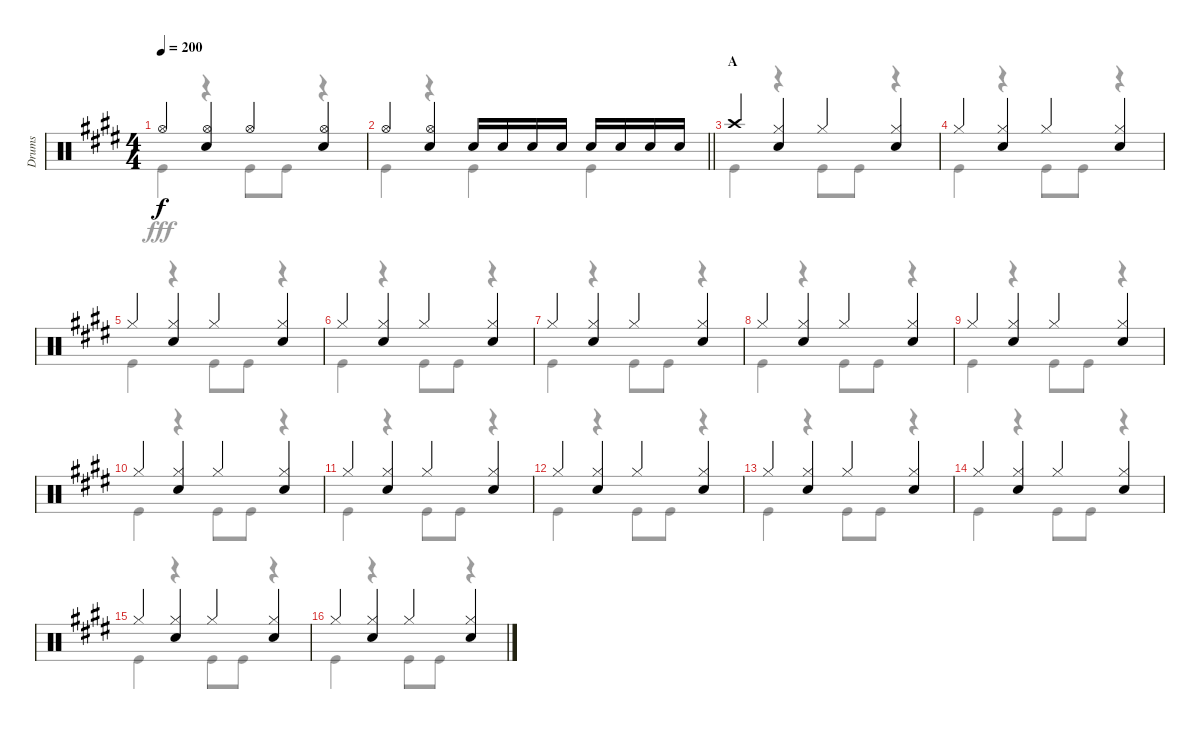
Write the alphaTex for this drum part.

\track ("Drums" "Drums") {instrument percussion}
\staff {score}
\articulation defaults
\voice
\ts (4 4)
\tempo 200
\clef neutral
\ks e "Hi-Hat (open)".4{dy f}
("Hi-Hat (open)" "Snare (hit) 2").4 "Hi-Hat (open)".4 ("Hi-Hat (open)" "Snare (hit) 2").4 |
\barLineRight lightlight "Hi-Hat (open)".4
("Hi-Hat (open)" "Snare (hit) 2").4 "Snare (hit) 2".16 "Snare (hit) 2".16 "Snare (hit) 2".16 "Snare (hit) 2".16 "Snare (hit) 2".16 "Snare (hit) 2".16 "Snare (hit) 2".16 "Snare (hit) 2".16 |
\section ("" "A")
"Crash high (hit)".4 ("Hi-Hat (closed)" "Snare (hit) 2").4 "Hi-Hat (closed)".4 ("Hi-Hat (closed)" "Snare (hit) 2").4 |
"Hi-Hat (closed)".4 ("Hi-Hat (closed)" "Snare (hit) 2").4 "Hi-Hat (closed)".4 ("Hi-Hat (closed)" "Snare (hit) 2").4 |
"Hi-Hat (closed)".4 ("Hi-Hat (closed)" "Snare (hit) 2").4 "Hi-Hat (closed)".4 ("Hi-Hat (closed)" "Snare (hit) 2").4 |
"Hi-Hat (closed)".4 ("Hi-Hat (closed)" "Snare (hit) 2").4 "Hi-Hat (closed)".4 ("Hi-Hat (closed)" "Snare (hit) 2").4 |
"Hi-Hat (closed)".4 ("Hi-Hat (closed)" "Snare (hit) 2").4 "Hi-Hat (closed)".4 ("Hi-Hat (closed)" "Snare (hit) 2").4 |
"Hi-Hat (closed)".4 ("Hi-Hat (closed)" "Snare (hit) 2").4 "Hi-Hat (closed)".4 ("Hi-Hat (closed)" "Snare (hit) 2").4 |
"Hi-Hat (closed)".4 ("Hi-Hat (closed)" "Snare (hit) 2").4 "Hi-Hat (closed)".4 ("Hi-Hat (closed)" "Snare (hit) 2").4 |
"Hi-Hat (closed)".4 ("Hi-Hat (closed)" "Snare (hit) 2").4 "Hi-Hat (closed)".4 ("Hi-Hat (closed)" "Snare (hit) 2").4 |
"Hi-Hat (closed)".4 ("Hi-Hat (closed)" "Snare (hit) 2").4 "Hi-Hat (closed)".4 ("Hi-Hat (closed)" "Snare (hit) 2").4 |
"Hi-Hat (closed)".4 ("Hi-Hat (closed)" "Snare (hit) 2").4 "Hi-Hat (closed)".4 ("Hi-Hat (closed)" "Snare (hit) 2").4 |
"Hi-Hat (closed)".4 ("Hi-Hat (closed)" "Snare (hit) 2").4 "Hi-Hat (closed)".4 ("Hi-Hat (closed)" "Snare (hit) 2").4 |
"Hi-Hat (closed)".4 ("Hi-Hat (closed)" "Snare (hit) 2").4 "Hi-Hat (closed)".4 ("Hi-Hat (closed)" "Snare (hit) 2").4 |
"Hi-Hat (closed)".4 ("Hi-Hat (closed)" "Snare (hit) 2").4 "Hi-Hat (closed)".4 ("Hi-Hat (closed)" "Snare (hit) 2").4 |
"Hi-Hat (closed)".4 ("Hi-Hat (closed)" "Snare (hit) 2").4 "Hi-Hat (closed)".4 ("Hi-Hat (closed)" "Snare (hit) 2").4
\voice
\clef neutral
\ottava regular
\simile none
\ks e "Kick (hit)".4{dy fff}
r.4 "Kick (hit)".8 "Kick (hit)".8 r.4 |
\barLineRight lightlight "Kick (hit)".4
r.4 "Kick (hit)".4 "Kick (hit)".4 |
"Kick (hit)".4 r.4 "Kick (hit)".8 "Kick (hit)".8 r.4 |
"Kick (hit)".4 r.4 "Kick (hit)".8 "Kick (hit)".8 r.4 |
"Kick (hit)".4 r.4 "Kick (hit)".8 "Kick (hit)".8 r.4 |
"Kick (hit)".4 r.4 "Kick (hit)".8 "Kick (hit)".8 r.4 |
"Kick (hit)".4 r.4 "Kick (hit)".8 "Kick (hit)".8 r.4 |
"Kick (hit)".4 r.4 "Kick (hit)".8 "Kick (hit)".8 r.4 |
"Kick (hit)".4 r.4 "Kick (hit)".8 "Kick (hit)".8 r.4 |
"Kick (hit)".4 r.4 "Kick (hit)".8 "Kick (hit)".8 r.4 |
"Kick (hit)".4 r.4 "Kick (hit)".8 "Kick (hit)".8 r.4 |
"Kick (hit)".4 r.4 "Kick (hit)".8 "Kick (hit)".8 r.4 |
"Kick (hit)".4 r.4 "Kick (hit)".8 "Kick (hit)".8 r.4 |
"Kick (hit)".4 r.4 "Kick (hit)".8 "Kick (hit)".8 r.4 |
"Kick (hit)".4 r.4 "Kick (hit)".8 "Kick (hit)".8 r.4 |
"Kick (hit)".4 r.4 "Kick (hit)".8 "Kick (hit)".8 r.4
